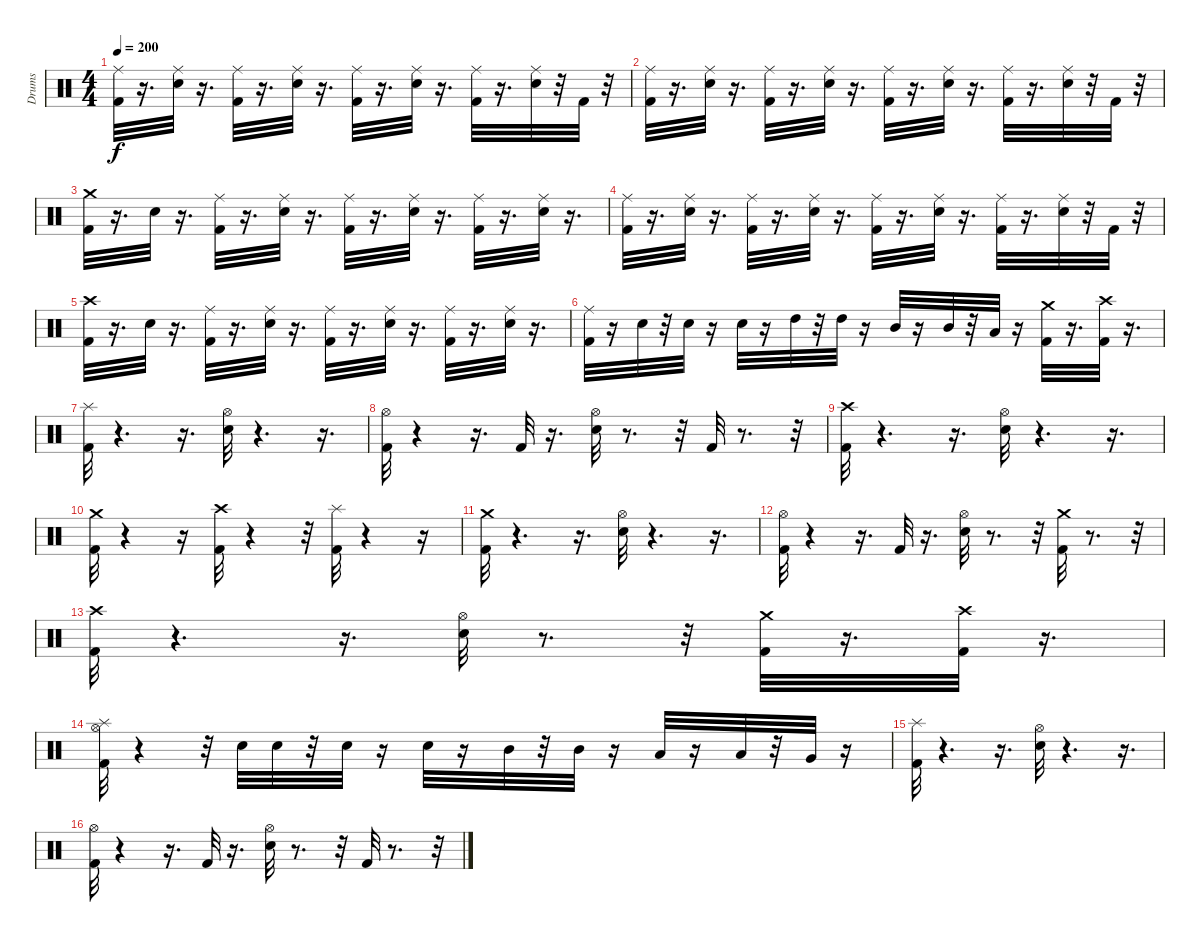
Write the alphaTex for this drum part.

\track ("Drums" "Drums") {instrument percussion}
\staff {score}
\articulation defaults
\ts (4 4)
\tempo 200
\clef neutral
\ks c
("Kick (hit) 2" "Ride (middle)").32{dy f} r.16{d} ("Electric Snare (hit)" "Ride (middle)").32 r.16{d} ("Kick (hit) 2" "Ride (middle)").32 r.16{d} ("Electric Snare (hit)" "Ride (middle)").32 r.16{d} ("Kick (hit) 2" "Ride (middle)").32 r.16{d} ("Electric Snare (hit)" "Ride (middle)").32 r.16{d} ("Kick (hit) 2" "Ride (middle)").32 r.16{d} ("Electric Snare (hit)" "Ride (middle)").32 r.32 "Kick (hit) 2".32 r.32 |
("Kick (hit) 2" "Ride (middle)").32 r.16{d} ("Electric Snare (hit)" "Ride (middle)").32 r.16{d} ("Kick (hit) 2" "Ride (middle)").32 r.16{d} ("Electric Snare (hit)" "Ride (middle)").32 r.16{d} ("Kick (hit) 2" "Ride (middle)").32 r.16{d} ("Electric Snare (hit)" "Ride (middle)").32 r.16{d} ("Kick (hit) 2" "Ride (middle)").32 r.16{d} ("Electric Snare (hit)" "Ride (middle)").32 r.32 "Kick (hit) 2".32 r.32 |
("Crash medium (hit)" "Kick (hit) 2").32 r.16{d} "Electric Snare (hit)".32 r.16{d} ("Kick (hit) 2" "Ride (middle)").32 r.16{d} ("Electric Snare (hit)" "Ride (middle)").32 r.16{d} ("Kick (hit) 2" "Ride (middle)").32 r.16{d} ("Electric Snare (hit)" "Ride (middle)").32 r.16{d} ("Kick (hit) 2" "Ride (middle)").32 r.16{d} ("Electric Snare (hit)" "Ride (middle)").32 r.16{d} |
("Kick (hit) 2" "Ride (middle)").32 r.16{d} ("Electric Snare (hit)" "Ride (middle)").32 r.16{d} ("Kick (hit) 2" "Ride (middle)").32 r.16{d} ("Electric Snare (hit)" "Ride (middle)").32 r.16{d} ("Kick (hit) 2" "Ride (middle)").32 r.16{d} ("Electric Snare (hit)" "Ride (middle)").32 r.16{d} ("Kick (hit) 2" "Ride (middle)").32 r.16{d} ("Electric Snare (hit)" "Ride (middle)").32 r.32 "Kick (hit) 2".32 r.32 |
("Crash high (hit)" "Kick (hit) 2").32 r.16{d} "Electric Snare (hit)".32 r.16{d} ("Kick (hit) 2" "Ride (middle)").32 r.16{d} ("Electric Snare (hit)" "Ride (middle)").32 r.16{d} ("Kick (hit) 2" "Ride (middle)").32 r.16{d} ("Electric Snare (hit)" "Ride (middle)").32 r.16{d} ("Kick (hit) 2" "Ride (middle)").32 r.16{d} ("Electric Snare (hit)" "Ride (middle)").32 r.16{d} |
("Kick (hit) 2" "Ride (middle)").32 r.16 "Electric Snare (hit)".32 r.32 "Electric Snare (hit)".32 r.16 "Electric Snare (hit)".32 r.16 "High Tom (hit)".32 r.32 "High Tom (hit)".32 r.16 "Mid Tom (hit)".32 r.16 "Mid Tom (hit)".32 r.32 "Low Tom (hit)".32 r.16 ("Kick (hit) 2" "Crash medium (hit)").32 r.16{d} ("Kick (hit) 2" "Crash high (hit)").32 r.16{d} |
("Kick (hit) 2" "Splash (hit)").32 r.4{d} r.16{d} ("Hi-Hat (open)" "Electric Snare (hit)").32 r.4{d} r.16{d} |
("Hi-Hat (open)" "Kick (hit) 2").32 r.4 r.16{d} "Kick (hit) 2".32 r.16{d} ("Hi-Hat (open)" "Electric Snare (hit)").32 r.8{d} r.32 "Kick (hit) 2".32 r.8{d} r.32 |
("Crash high (hit)" "Kick (hit) 2").32 r.4{d} r.16{d} ("Hi-Hat (open)" "Electric Snare (hit)").32 r.4{d} r.16{d} |
("Crash medium (hit)" "Kick (hit) 2").32 r.4 r.16 ("Kick (hit) 2" "Crash high (hit)").32 r.4 r.32 ("Kick (hit) 2" "Splash (hit)").32 r.4 r.16 |
("Crash medium (hit)" "Kick (hit) 2").32 r.4{d} r.16{d} ("Hi-Hat (open)" "Electric Snare (hit)").32 r.4{d} r.16{d} |
("Hi-Hat (open)" "Kick (hit) 2").32 r.4 r.16{d} "Kick (hit) 2".32 r.16{d} ("Electric Snare (hit)" "Hi-Hat (open)").32 r.8{d} r.32 ("Crash medium (hit)" "Kick (hit) 2").32 r.8{d} r.32 |
("Crash high (hit)" "Kick (hit) 2").32 r.4{d} r.16{d} ("Electric Snare (hit)" "Hi-Hat (open)").32 r.8{d} r.32 ("Crash medium (hit)" "Kick (hit) 2").32 r.16{d} ("Crash high (hit)" "Kick (hit) 2").32 r.16{d} |
("Splash (hit)" "Kick (hit) 2" "Hi-Hat (open)").32 r.4 r.32 "Electric Snare (hit)".32 "Electric Snare (hit)".32 r.32 "Electric Snare (hit)".32 r.16 "Electric Snare (hit)".32 r.16 "Mid Tom (hit)".32 r.32 "Mid Tom (hit)".32 r.16 "Low Tom (hit)".32 r.16 "Low Tom (hit)".32 r.32 "Very Low Tom (hit)".32 r.16 |
("Kick (hit) 2" "Splash (hit)").32 r.4{d} r.16{d} ("Hi-Hat (open)" "Electric Snare (hit)").32 r.4{d} r.16{d} |
("Hi-Hat (open)" "Kick (hit) 2").32 r.4 r.16{d} "Kick (hit) 2".32 r.16{d} ("Hi-Hat (open)" "Electric Snare (hit)").32 r.8{d} r.32 "Kick (hit) 2".32 r.8{d} r.32
